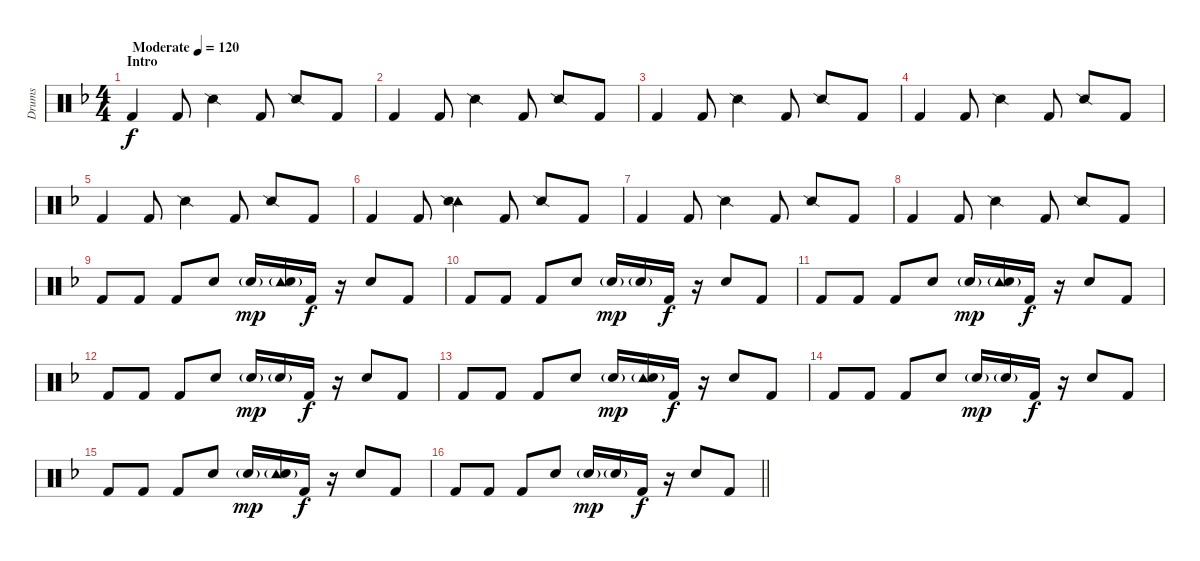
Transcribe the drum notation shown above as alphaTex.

\track ("Drums" "Drums") {instrument percussion}
\staff {score}
\articulation defaults
\ts (4 4)
\section ("" "Intro")
\tempo (120 "Moderate")
\clef neutral
\ks f "Kick (hit) 2".4{dy f} "Kick (hit) 2".8 "Snare (side stick) 2".4 "Kick (hit) 2".8 "Snare (side stick) 2".8 "Kick (hit) 2".8
|
"Kick (hit) 2".4 "Kick (hit) 2".8 "Snare (side stick) 2".4 "Kick (hit) 2".8 "Snare (side stick) 2".8 "Kick (hit) 2".8 |
"Kick (hit) 2".4 "Kick (hit) 2".8 "Snare (side stick) 2".4 "Kick (hit) 2".8 "Snare (side stick) 2".8 "Kick (hit) 2".8 |
"Kick (hit) 2".4 "Kick (hit) 2".8 "Snare (side stick) 2".4 "Kick (hit) 2".8 "Snare (side stick) 2".8 "Kick (hit) 2".8 |
"Kick (hit) 2".4 "Kick (hit) 2".8 "Snare (side stick) 2".4 "Kick (hit) 2".8 "Snare (side stick) 2".8 "Kick (hit) 2".8 |
"Kick (hit) 2".4 "Kick (hit) 2".8 ("Tambourine (hit)" "Snare (side stick) 2").4 "Kick (hit) 2".8 "Snare (side stick) 2".8 "Kick (hit) 2".8 |
"Kick (hit) 2".4 "Kick (hit) 2".8 "Snare (side stick) 2".4 "Kick (hit) 2".8 "Snare (side stick) 2".8 "Kick (hit) 2".8 |
"Kick (hit) 2".4 "Kick (hit) 2".8 "Snare (side stick) 2".4 "Kick (hit) 2".8 "Snare (side stick) 2".8 "Kick (hit) 2".8 |
"Kick (hit) 2".8 "Kick (hit) 2".8 "Kick (hit) 2".8 "Snare (hit) 2".8 "Snare (hit) 2"{g}.16{dy mp} ("Tambourine (hit)" "Snare (hit) 2"{g}).16 "Kick (hit) 2".16{dy f} r.16 "Snare (hit) 2".8 "Kick (hit) 2".8 |
"Kick (hit) 2".8 "Kick (hit) 2".8 "Kick (hit) 2".8 "Snare (hit) 2".8 "Snare (hit) 2"{g}.16{dy mp} "Snare (hit) 2"{g}.16 "Kick (hit) 2".16{dy f} r.16 "Snare (hit) 2".8 "Kick (hit) 2".8 |
"Kick (hit) 2".8 "Kick (hit) 2".8 "Kick (hit) 2".8 "Snare (hit) 2".8 "Snare (hit) 2"{g}.16{dy mp} ("Tambourine (hit)" "Snare (hit) 2"{g}).16 "Kick (hit) 2".16{dy f} r.16 "Snare (hit) 2".8 "Kick (hit) 2".8 |
"Kick (hit) 2".8 "Kick (hit) 2".8 "Kick (hit) 2".8 "Snare (hit) 2".8 "Snare (hit) 2"{g}.16{dy mp} "Snare (hit) 2"{g}.16 "Kick (hit) 2".16{dy f} r.16 "Snare (hit) 2".8 "Kick (hit) 2".8 |
"Kick (hit) 2".8 "Kick (hit) 2".8 "Kick (hit) 2".8 "Snare (hit) 2".8 "Snare (hit) 2"{g}.16{dy mp} ("Tambourine (hit)" "Snare (hit) 2"{g}).16 "Kick (hit) 2".16{dy f} r.16 "Snare (hit) 2".8 "Kick (hit) 2".8 |
"Kick (hit) 2".8 "Kick (hit) 2".8 "Kick (hit) 2".8 "Snare (hit) 2".8 "Snare (hit) 2"{g}.16{dy mp} "Snare (hit) 2"{g}.16 "Kick (hit) 2".16{dy f} r.16 "Snare (hit) 2".8 "Kick (hit) 2".8 |
"Kick (hit) 2".8 "Kick (hit) 2".8 "Kick (hit) 2".8 "Snare (hit) 2".8 "Snare (hit) 2"{g}.16{dy mp} ("Tambourine (hit)" "Snare (hit) 2"{g}).16 "Kick (hit) 2".16{dy f} r.16 "Snare (hit) 2".8 "Kick (hit) 2".8 |
\barLineRight lightlight "Kick (hit) 2".8 "Kick (hit) 2".8 "Kick (hit) 2".8 "Snare (hit) 2".8 "Snare (hit) 2"{g}.16{dy mp} "Snare (hit) 2"{g}.16 "Kick (hit) 2".16{dy f}
r.16 "Snare (hit) 2".8 "Kick (hit) 2".8
